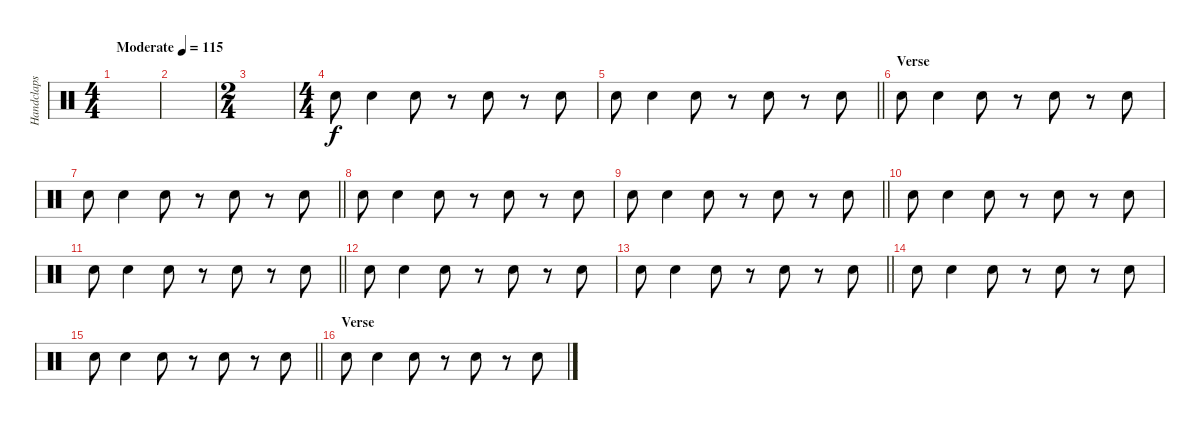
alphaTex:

\track ("Handclaps" "Handclaps") {instrument percussion}
\staff {score}
\articulation defaults
\ts (4 4)
\tempo (115 "Moderate")
\clef neutral
\ks c
|
|
\ts (2 4)
|
\ts (4 4)
"Hand Clap (hit)".8 "Hand Clap (hit)".4 "Hand Clap (hit)".8 r.8 "Hand Clap (hit)".8 r.8 "Hand Clap (hit)".8 |
\barLineRight lightlight "Hand Clap (hit)".8 "Hand Clap (hit)".4 "Hand Clap (hit)".8
r.8 "Hand Clap (hit)".8 r.8 "Hand Clap (hit)".8 |
\section ("" "Verse")
"Hand Clap (hit)".8 "Hand Clap (hit)".4 "Hand Clap (hit)".8 r.8 "Hand Clap (hit)".8 r.8 "Hand Clap (hit)".8 |
\barLineRight lightlight "Hand Clap (hit)".8 "Hand Clap (hit)".4 "Hand Clap (hit)".8
r.8 "Hand Clap (hit)".8 r.8 "Hand Clap (hit)".8 |
"Hand Clap (hit)".8 "Hand Clap (hit)".4 "Hand Clap (hit)".8 r.8 "Hand Clap (hit)".8 r.8 "Hand Clap (hit)".8 |
\barLineRight lightlight "Hand Clap (hit)".8 "Hand Clap (hit)".4 "Hand Clap (hit)".8
r.8 "Hand Clap (hit)".8 r.8 "Hand Clap (hit)".8 |
"Hand Clap (hit)".8 "Hand Clap (hit)".4 "Hand Clap (hit)".8 r.8 "Hand Clap (hit)".8 r.8 "Hand Clap (hit)".8 |
\barLineRight lightlight "Hand Clap (hit)".8 "Hand Clap (hit)".4 "Hand Clap (hit)".8
r.8 "Hand Clap (hit)".8 r.8 "Hand Clap (hit)".8 |
"Hand Clap (hit)".8 "Hand Clap (hit)".4 "Hand Clap (hit)".8 r.8 "Hand Clap (hit)".8 r.8 "Hand Clap (hit)".8 |
\barLineRight lightlight "Hand Clap (hit)".8 "Hand Clap (hit)".4 "Hand Clap (hit)".8
r.8 "Hand Clap (hit)".8 r.8 "Hand Clap (hit)".8 |
"Hand Clap (hit)".8 "Hand Clap (hit)".4 "Hand Clap (hit)".8 r.8 "Hand Clap (hit)".8 r.8 "Hand Clap (hit)".8 |
\barLineRight lightlight "Hand Clap (hit)".8 "Hand Clap (hit)".4 "Hand Clap (hit)".8
r.8 "Hand Clap (hit)".8 r.8 "Hand Clap (hit)".8 |
\section ("" "Verse")
"Hand Clap (hit)".8 "Hand Clap (hit)".4 "Hand Clap (hit)".8 r.8 "Hand Clap (hit)".8 r.8 "Hand Clap (hit)".8
